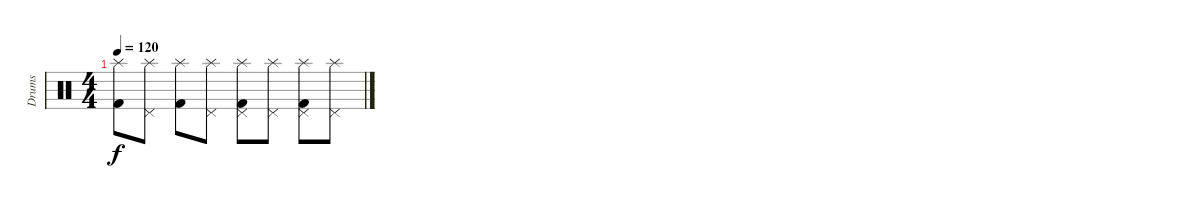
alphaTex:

\track ("Drums" "Drums") {instrument percussion}
\staff {score}
\articulation defaults
\ts (4 4)
\tempo 120
\clef neutral
\ks c
("Splash (hit)" "Kick (hit) 2").8{dy f} ("Pedal Hi-Hat (hit)" "Splash (hit)").8 ("Splash (hit)" "Kick (hit) 2").8 ("Pedal Hi-Hat (hit)" "Splash (hit)").8 ("Pedal Hi-Hat (hit)" "Splash (hit)" "Kick (hit) 2").8 ("Pedal Hi-Hat (hit)" "Splash (hit)").8 ("Pedal Hi-Hat (hit)" "Splash (hit)" "Kick (hit) 2").8 ("Pedal Hi-Hat (hit)" "Splash (hit)").8
